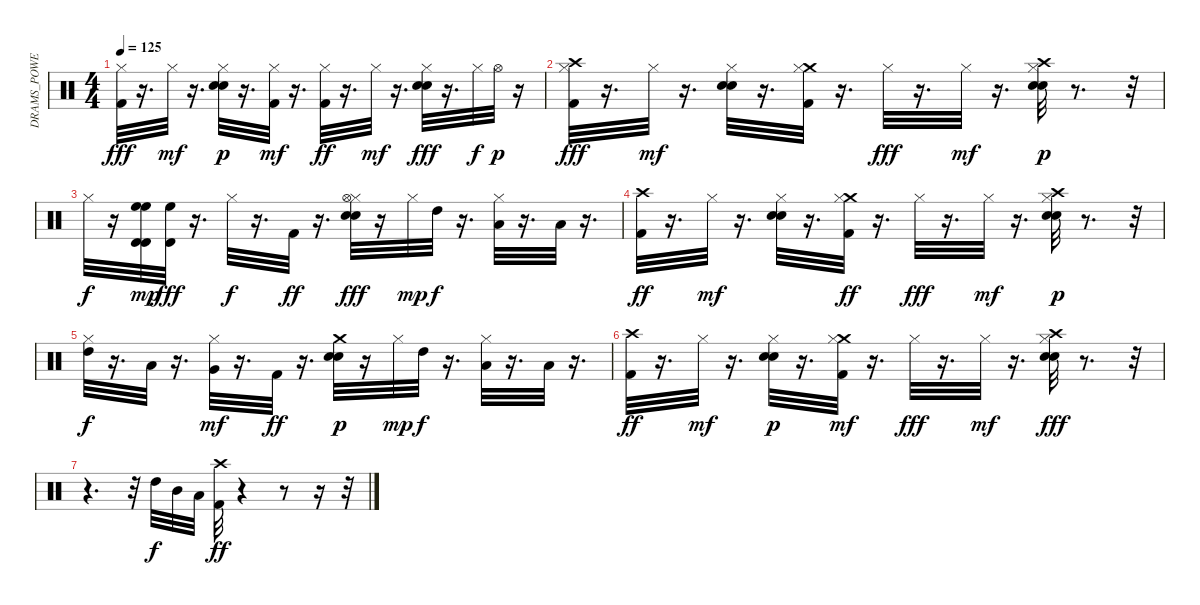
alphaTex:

\track ("DRAMS_POWER" "DRAMS_POWE") {instrument percussion}
\staff {score}
\articulation defaults
\ts (4 4)
\tempo 125
\clef neutral
\ks c
("Kick (hit) 2" "Hi-Hat (closed)").32{dy fff} r.16{d} "Hi-Hat (closed)".32{dy mf} r.16{d} ("Hi-Hat (closed)" "Electric Snare (hit)" "Snare (hit) 2").32{dy p} r.16{d} ("Kick (hit) 2" "Hi-Hat (closed)").32{dy mf} r.16{d} ("Hi-Hat (closed)" "Kick (hit) 2").32{dy ff} r.16{d} "Hi-Hat (closed)".32{dy mf} r.16{d} ("Snare (hit) 2" "Hi-Hat (closed)" "Electric Snare (hit)").32{dy fff} r.16{d} "Hi-Hat (closed)".32{dy f} "Hi-Hat (open)".32{dy p} r.16 |
("Crash high (hit)" "Kick (hit) 2" "Hi-Hat (closed)").32{dy fff} r.16{d} "Hi-Hat (closed)".32{dy mf} r.16{d} ("Snare (hit) 2" "Electric Snare (hit)" "Hi-Hat (closed)").32 r.16{d} ("Crash medium (hit)" "Kick (hit) 2" "Hi-Hat (closed)").32 r.16{d} "Hi-Hat (closed)".32{dy fff} r.16{d} "Hi-Hat (closed)".32{dy mf} r.16{d} ("Crash high (hit)" "Hi-Hat (closed)" "Electric Snare (hit)" "Snare (hit) 2").32{dy p} r.8{d} r.32 |
"Hi-Hat (closed)".32{dy f} r.16 ("High Floor Tom (hit)" "Timbale high (hit)" "Timbale high (hit)" "High Floor Tom (hit)").32{dy mp} ("Timbale high (hit)" "High Floor Tom (hit)").32{dy fff} r.16{d} "Hi-Hat (closed)".32{dy f} r.16{d} "Kick (hit) 2".32{dy ff} r.16{d} ("Hi-Hat (closed)" "Hi-Hat (open)" "Snare (hit) 2" "Electric Snare (hit)").32{dy fff} r.16 "Hi-Hat (closed)".32{dy mp} "High Tom (hit)".32{dy f} r.16{d} ("Hi-Hat (closed)" "Low Tom (hit)").32 r.16{d} "Low Floor Tom (hit)".32 r.16{d} |
("Kick (hit) 2" "Crash high (hit)").32{dy ff} r.16{d} "Hi-Hat (closed)".32{dy mf} r.16{d} ("Snare (hit) 2" "Electric Snare (hit)" "Hi-Hat (closed)").32 r.16{d} ("Crash medium (hit)" "Hi-Hat (closed)" "Kick (hit) 2").32{dy ff} r.16{d} "Hi-Hat (closed)".32{dy fff} r.16{d} "Hi-Hat (closed)".32{dy mf} r.16{d} ("Crash high (hit)" "Hi-Hat (closed)" "Electric Snare (hit)" "Snare (hit) 2").32{dy p} r.8{d} r.32 |
("High Tom (hit)" "Hi-Hat (closed)").32{dy f} r.16{d} "Low Tom (hit)".32 r.16{d} ("Very Low Tom (hit)" "Hi-Hat (closed)").32{dy mf} r.16{d} "Kick (hit) 2".32{dy ff} r.16{d} ("Crash medium (hit)" "Electric Snare (hit)" "Snare (hit) 2").32{dy p} r.16 "Hi-Hat (closed)".32{dy mp} "High Tom (hit)".32{dy f} r.16{d} ("Hi-Hat (closed)" "Low Tom (hit)").32 r.16{d} "Low Floor Tom (hit)".32 r.16{d} |
("Kick (hit) 2" "Crash high (hit)").32{dy ff} r.16{d} "Hi-Hat (closed)".32{dy mf} r.16{d} ("Hi-Hat (closed)" "Electric Snare (hit)" "Snare (hit) 2").32{dy p} r.16{d} ("Crash medium (hit)" "Kick (hit) 2" "Hi-Hat (closed)").32{dy mf} r.16{d} "Hi-Hat (closed)".32{dy fff} r.16{d} "Hi-Hat (closed)".32{dy mf} r.16{d} ("Crash high (hit)" "Snare (hit) 2" "Hi-Hat (closed)" "Electric Snare (hit)").32{dy fff} r.8{d} r.32 |
r.4{d} r.32 "High Tom (hit)".32{dy f} "Mid Tom (hit)".32 "Low Tom (hit)".32 ("Crash high (hit)" "Kick (hit) 2").32{dy ff} r.4 r.8 r.16 r.32
